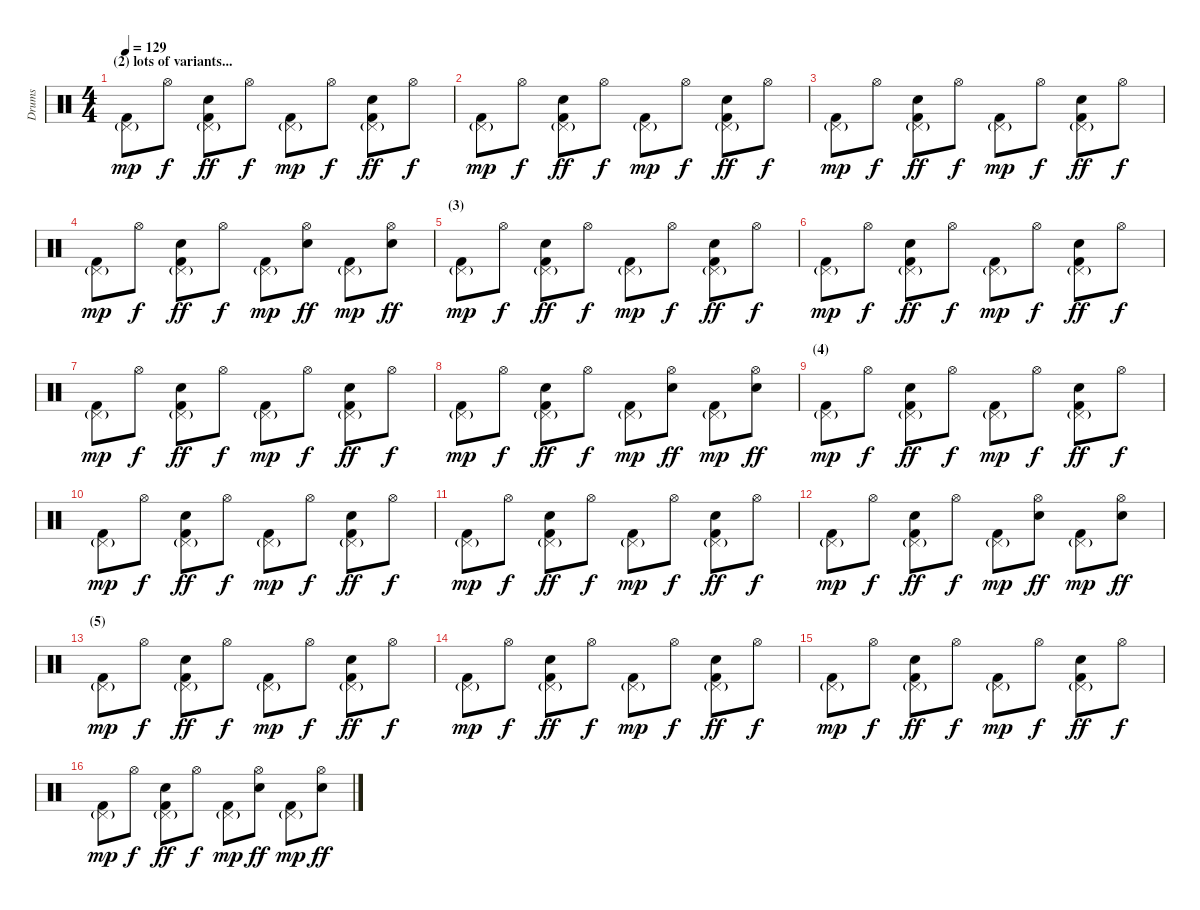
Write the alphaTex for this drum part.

\track ("Drums" "Drums") {instrument percussion}
\staff {score}
\articulation defaults
\ts (4 4)
\section ("" "(2) lots of variants...")
\tempo 129
\clef neutral
\ks c
("Pedal Hi-Hat (hit)"{g} "Kick (hit) 2").8{dy mp} "Hi-Hat (open)".8{dy f} ("Pedal Hi-Hat (hit)"{g} "Electric Snare (hit)" "Kick (hit) 2").8{dy ff} "Hi-Hat (open)".8{dy f} ("Pedal Hi-Hat (hit)"{g} "Kick (hit) 2").8{dy mp} "Hi-Hat (open)".8{dy f} ("Pedal Hi-Hat (hit)"{g} "Electric Snare (hit)" "Kick (hit) 2").8{dy ff} "Hi-Hat (open)".8{dy f} |
("Pedal Hi-Hat (hit)"{g} "Kick (hit) 2").8{dy mp} "Hi-Hat (open)".8{dy f} ("Pedal Hi-Hat (hit)"{g} "Electric Snare (hit)" "Kick (hit) 2").8{dy ff} "Hi-Hat (open)".8{dy f} ("Pedal Hi-Hat (hit)"{g} "Kick (hit) 2").8{dy mp} "Hi-Hat (open)".8{dy f} ("Pedal Hi-Hat (hit)"{g} "Electric Snare (hit)" "Kick (hit) 2").8{dy ff} "Hi-Hat (open)".8{dy f} |
("Pedal Hi-Hat (hit)"{g} "Kick (hit) 2").8{dy mp} "Hi-Hat (open)".8{dy f} ("Pedal Hi-Hat (hit)"{g} "Electric Snare (hit)" "Kick (hit) 2").8{dy ff} "Hi-Hat (open)".8{dy f} ("Pedal Hi-Hat (hit)"{g} "Kick (hit) 2").8{dy mp} "Hi-Hat (open)".8{dy f} ("Pedal Hi-Hat (hit)"{g} "Electric Snare (hit)" "Kick (hit) 2").8{dy ff} "Hi-Hat (open)".8{dy f} |
("Pedal Hi-Hat (hit)"{g} "Kick (hit) 2").8{dy mp} "Hi-Hat (open)".8{dy f} ("Pedal Hi-Hat (hit)"{g} "Electric Snare (hit)" "Kick (hit) 2").8{dy ff} "Hi-Hat (open)".8{dy f} ("Pedal Hi-Hat (hit)"{g} "Kick (hit) 2").8{dy mp} ("Hi-Hat (open)" "Electric Snare (hit)").8{dy ff} ("Pedal Hi-Hat (hit)"{g} "Kick (hit) 2").8{dy mp} ("Hi-Hat (open)" "Electric Snare (hit)").8{dy ff} |
\section ("" "(3)")
("Pedal Hi-Hat (hit)"{g} "Kick (hit) 2").8{dy mp} "Hi-Hat (open)".8{dy f} ("Pedal Hi-Hat (hit)"{g} "Electric Snare (hit)" "Kick (hit) 2").8{dy ff} "Hi-Hat (open)".8{dy f} ("Pedal Hi-Hat (hit)"{g} "Kick (hit) 2").8{dy mp} "Hi-Hat (open)".8{dy f} ("Pedal Hi-Hat (hit)"{g} "Electric Snare (hit)" "Kick (hit) 2").8{dy ff} "Hi-Hat (open)".8{dy f} |
("Pedal Hi-Hat (hit)"{g} "Kick (hit) 2").8{dy mp} "Hi-Hat (open)".8{dy f} ("Pedal Hi-Hat (hit)"{g} "Electric Snare (hit)" "Kick (hit) 2").8{dy ff} "Hi-Hat (open)".8{dy f} ("Pedal Hi-Hat (hit)"{g} "Kick (hit) 2").8{dy mp} "Hi-Hat (open)".8{dy f} ("Pedal Hi-Hat (hit)"{g} "Electric Snare (hit)" "Kick (hit) 2").8{dy ff} "Hi-Hat (open)".8{dy f} |
("Pedal Hi-Hat (hit)"{g} "Kick (hit) 2").8{dy mp} "Hi-Hat (open)".8{dy f} ("Pedal Hi-Hat (hit)"{g} "Electric Snare (hit)" "Kick (hit) 2").8{dy ff} "Hi-Hat (open)".8{dy f} ("Pedal Hi-Hat (hit)"{g} "Kick (hit) 2").8{dy mp} "Hi-Hat (open)".8{dy f} ("Pedal Hi-Hat (hit)"{g} "Electric Snare (hit)" "Kick (hit) 2").8{dy ff} "Hi-Hat (open)".8{dy f} |
("Pedal Hi-Hat (hit)"{g} "Kick (hit) 2").8{dy mp} "Hi-Hat (open)".8{dy f} ("Pedal Hi-Hat (hit)"{g} "Electric Snare (hit)" "Kick (hit) 2").8{dy ff} "Hi-Hat (open)".8{dy f} ("Pedal Hi-Hat (hit)"{g} "Kick (hit) 2").8{dy mp} ("Hi-Hat (open)" "Electric Snare (hit)").8{dy ff} ("Pedal Hi-Hat (hit)"{g} "Kick (hit) 2").8{dy mp} ("Hi-Hat (open)" "Electric Snare (hit)").8{dy ff} |
\section ("" "(4)")
("Pedal Hi-Hat (hit)"{g} "Kick (hit) 2").8{dy mp} "Hi-Hat (open)".8{dy f} ("Pedal Hi-Hat (hit)"{g} "Electric Snare (hit)" "Kick (hit) 2").8{dy ff} "Hi-Hat (open)".8{dy f} ("Pedal Hi-Hat (hit)"{g} "Kick (hit) 2").8{dy mp} "Hi-Hat (open)".8{dy f} ("Pedal Hi-Hat (hit)"{g} "Electric Snare (hit)" "Kick (hit) 2").8{dy ff} "Hi-Hat (open)".8{dy f} |
("Pedal Hi-Hat (hit)"{g} "Kick (hit) 2").8{dy mp} "Hi-Hat (open)".8{dy f} ("Pedal Hi-Hat (hit)"{g} "Electric Snare (hit)" "Kick (hit) 2").8{dy ff} "Hi-Hat (open)".8{dy f} ("Pedal Hi-Hat (hit)"{g} "Kick (hit) 2").8{dy mp} "Hi-Hat (open)".8{dy f} ("Pedal Hi-Hat (hit)"{g} "Electric Snare (hit)" "Kick (hit) 2").8{dy ff} "Hi-Hat (open)".8{dy f} |
("Pedal Hi-Hat (hit)"{g} "Kick (hit) 2").8{dy mp} "Hi-Hat (open)".8{dy f} ("Pedal Hi-Hat (hit)"{g} "Electric Snare (hit)" "Kick (hit) 2").8{dy ff} "Hi-Hat (open)".8{dy f} ("Pedal Hi-Hat (hit)"{g} "Kick (hit) 2").8{dy mp} "Hi-Hat (open)".8{dy f} ("Pedal Hi-Hat (hit)"{g} "Electric Snare (hit)" "Kick (hit) 2").8{dy ff} "Hi-Hat (open)".8{dy f} |
("Pedal Hi-Hat (hit)"{g} "Kick (hit) 2").8{dy mp} "Hi-Hat (open)".8{dy f} ("Pedal Hi-Hat (hit)"{g} "Electric Snare (hit)" "Kick (hit) 2").8{dy ff} "Hi-Hat (open)".8{dy f} ("Pedal Hi-Hat (hit)"{g} "Kick (hit) 2").8{dy mp} ("Hi-Hat (open)" "Electric Snare (hit)").8{dy ff} ("Pedal Hi-Hat (hit)"{g} "Kick (hit) 2").8{dy mp} ("Hi-Hat (open)" "Electric Snare (hit)").8{dy ff} |
\section ("" "(5)")
("Pedal Hi-Hat (hit)"{g} "Kick (hit) 2").8{dy mp} "Hi-Hat (open)".8{dy f} ("Pedal Hi-Hat (hit)"{g} "Electric Snare (hit)" "Kick (hit) 2").8{dy ff} "Hi-Hat (open)".8{dy f} ("Pedal Hi-Hat (hit)"{g} "Kick (hit) 2").8{dy mp} "Hi-Hat (open)".8{dy f} ("Pedal Hi-Hat (hit)"{g} "Electric Snare (hit)" "Kick (hit) 2").8{dy ff} "Hi-Hat (open)".8{dy f} |
("Pedal Hi-Hat (hit)"{g} "Kick (hit) 2").8{dy mp} "Hi-Hat (open)".8{dy f} ("Pedal Hi-Hat (hit)"{g} "Electric Snare (hit)" "Kick (hit) 2").8{dy ff} "Hi-Hat (open)".8{dy f} ("Pedal Hi-Hat (hit)"{g} "Kick (hit) 2").8{dy mp} "Hi-Hat (open)".8{dy f} ("Pedal Hi-Hat (hit)"{g} "Electric Snare (hit)" "Kick (hit) 2").8{dy ff} "Hi-Hat (open)".8{dy f} |
("Pedal Hi-Hat (hit)"{g} "Kick (hit) 2").8{dy mp} "Hi-Hat (open)".8{dy f} ("Pedal Hi-Hat (hit)"{g} "Electric Snare (hit)" "Kick (hit) 2").8{dy ff} "Hi-Hat (open)".8{dy f} ("Pedal Hi-Hat (hit)"{g} "Kick (hit) 2").8{dy mp} "Hi-Hat (open)".8{dy f} ("Pedal Hi-Hat (hit)"{g} "Electric Snare (hit)" "Kick (hit) 2").8{dy ff} "Hi-Hat (open)".8{dy f} |
("Pedal Hi-Hat (hit)"{g} "Kick (hit) 2").8{dy mp} "Hi-Hat (open)".8{dy f} ("Pedal Hi-Hat (hit)"{g} "Electric Snare (hit)" "Kick (hit) 2").8{dy ff} "Hi-Hat (open)".8{dy f} ("Pedal Hi-Hat (hit)"{g} "Kick (hit) 2").8{dy mp} ("Hi-Hat (open)" "Electric Snare (hit)").8{dy ff} ("Pedal Hi-Hat (hit)"{g} "Kick (hit) 2").8{dy mp} ("Hi-Hat (open)" "Electric Snare (hit)").8{dy ff}
